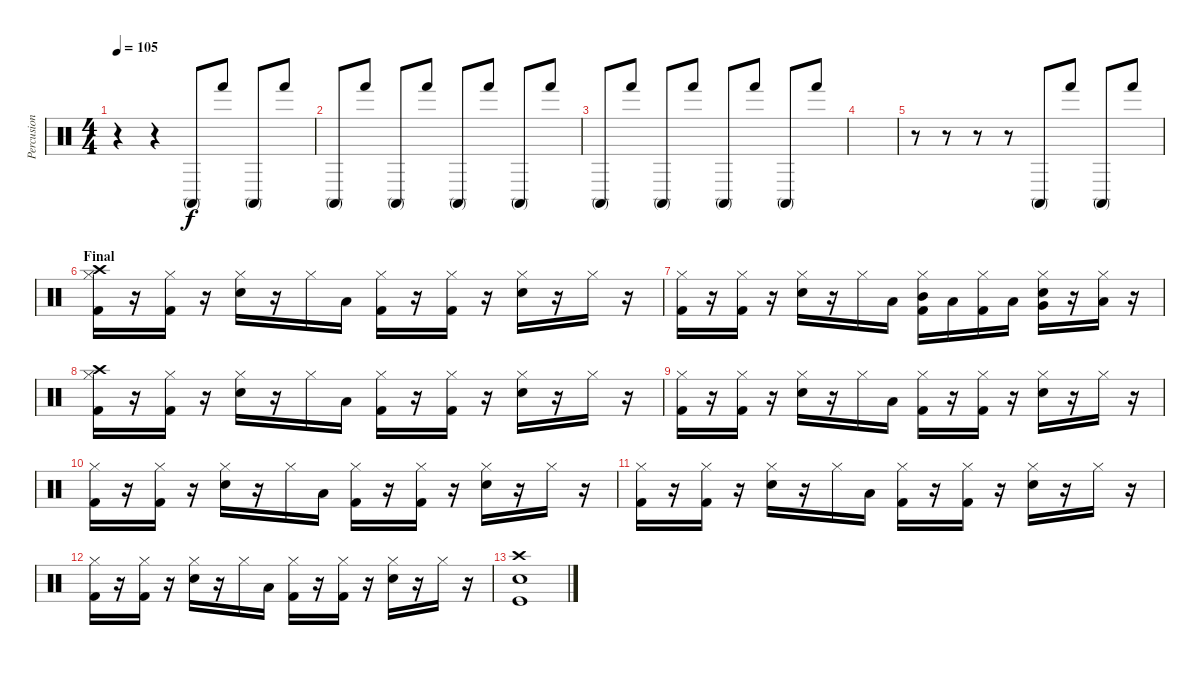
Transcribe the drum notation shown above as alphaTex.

\track ("Percusion" "Percusion") {instrument percussion}
\staff {score}
\articulation defaults
\ts (4 4)
\tempo 105
\clef neutral
\ks c
r.4{dy f} r.4 "Conga high (mute)".8 "Hand (hit)".8 "Conga high (mute)".8 "Hand (hit)".8 |
"Conga high (mute)".8 "Hand (hit)".8 "Conga high (mute)".8 "Hand (hit)".8 "Conga high (mute)".8 "Hand (hit)".8 "Conga high (mute)".8 "Hand (hit)".8 |
"Conga high (mute)".8 "Hand (hit)".8 "Conga high (mute)".8 "Hand (hit)".8 "Conga high (mute)".8 "Hand (hit)".8 "Conga high (mute)".8 "Hand (hit)".8 |
|
r.8 r.8 r.8 r.8 "Conga high (mute)".8 "Hand (hit)".8 "Conga high (mute)".8 "Hand (hit)".8 |
\section ("" "Final")
("Hi-Hat (closed)" "Kick (hit) 2" "Crash high (hit)").16 r.16 ("Hi-Hat (closed)" "Kick (hit) 2").16 r.16 ("Hi-Hat (closed)" "Snare (hit) 2").16 r.16 "Hi-Hat (closed)".16 "Low Floor Tom (hit)".16 ("Hi-Hat (closed)" "Kick (hit) 2").16 r.16 ("Hi-Hat (closed)" "Kick (hit) 2").16 r.16 ("Hi-Hat (closed)" "Snare (hit) 2").16 r.16 "Hi-Hat (closed)".16 r.16 |
("Hi-Hat (closed)" "Kick (hit) 2").16 r.16 ("Hi-Hat (closed)" "Kick (hit) 2").16 r.16 ("Hi-Hat (closed)" "Snare (hit) 2").16 r.16 "Hi-Hat (closed)".16 "Low Floor Tom (hit)".16 ("Hi-Hat (closed)" "Kick (hit) 2" "Mid Tom (hit)").16 "Low Tom (hit)".16 ("Hi-Hat (closed)" "Kick (hit) 2").16 "Low Tom (hit)".16 ("Hi-Hat (closed)" "Snare (hit) 2" "Very Low Tom (hit)").16 r.16 ("Hi-Hat (closed)" "Low Floor Tom (hit)").16 r.16 |
("Hi-Hat (closed)" "Kick (hit) 2" "Crash high (hit)").16 r.16 ("Hi-Hat (closed)" "Kick (hit) 2").16 r.16 ("Hi-Hat (closed)" "Snare (hit) 2").16 r.16 "Hi-Hat (closed)".16 "Low Floor Tom (hit)".16 ("Hi-Hat (closed)" "Kick (hit) 2").16 r.16 ("Hi-Hat (closed)" "Kick (hit) 2").16 r.16 ("Hi-Hat (closed)" "Snare (hit) 2").16 r.16 "Hi-Hat (closed)".16 r.16 |
("Hi-Hat (closed)" "Kick (hit) 2").16 r.16 ("Hi-Hat (closed)" "Kick (hit) 2").16 r.16 ("Hi-Hat (closed)" "Snare (hit) 2").16 r.16 "Hi-Hat (closed)".16 "Low Floor Tom (hit)".16 ("Hi-Hat (closed)" "Kick (hit) 2").16 r.16 ("Hi-Hat (closed)" "Kick (hit) 2").16 r.16 ("Hi-Hat (closed)" "Snare (hit) 2").16 r.16 "Hi-Hat (closed)".16 r.16 |
("Hi-Hat (closed)" "Kick (hit) 2").16 r.16 ("Hi-Hat (closed)" "Kick (hit) 2").16 r.16 ("Hi-Hat (closed)" "Snare (hit) 2").16 r.16 "Hi-Hat (closed)".16 "Low Floor Tom (hit)".16 ("Hi-Hat (closed)" "Kick (hit) 2").16 r.16 ("Hi-Hat (closed)" "Kick (hit) 2").16 r.16 ("Hi-Hat (closed)" "Snare (hit) 2").16 r.16 "Hi-Hat (closed)".16 r.16 |
("Hi-Hat (closed)" "Kick (hit) 2").16 r.16 ("Hi-Hat (closed)" "Kick (hit) 2").16 r.16 ("Hi-Hat (closed)" "Snare (hit) 2").16 r.16 "Hi-Hat (closed)".16 "Low Floor Tom (hit)".16 ("Hi-Hat (closed)" "Kick (hit) 2").16 r.16 ("Hi-Hat (closed)" "Kick (hit) 2").16 r.16 ("Hi-Hat (closed)" "Snare (hit) 2").16 r.16 "Hi-Hat (closed)".16 r.16 |
("Hi-Hat (closed)" "Kick (hit) 2").16 r.16 ("Hi-Hat (closed)" "Kick (hit) 2").16 r.16 ("Hi-Hat (closed)" "Snare (hit) 2").16 r.16 "Hi-Hat (closed)".16 "Low Floor Tom (hit)".16 ("Hi-Hat (closed)" "Kick (hit) 2").16 r.16 ("Hi-Hat (closed)" "Kick (hit) 2").16 r.16 ("Hi-Hat (closed)" "Snare (hit) 2").16 r.16 "Hi-Hat (closed)".16 r.16 |
("Snare (hit) 2" "Kick (hit)" "Crash high (hit)").1
